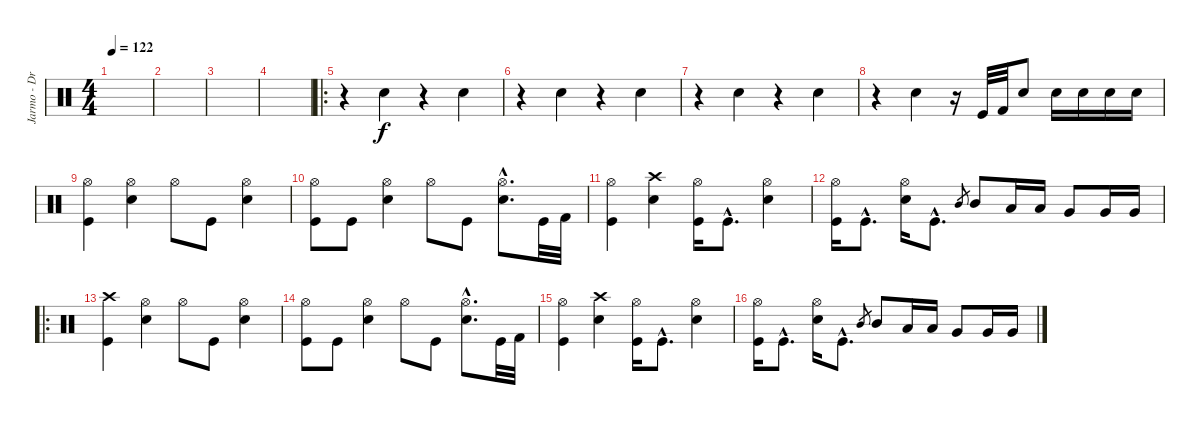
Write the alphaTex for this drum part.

\track ("Jarmo - Drums" "Jarmo - Dr") {instrument percussion}
\staff {score}
\articulation defaults
\ts (4 4)
\tempo 122
\clef neutral
\ks c
|
|
|
|
\ro
r.4 "Electric Snare (hit)".4 r.4 "Electric Snare (hit)".4 |
r.4 "Electric Snare (hit)".4 r.4 "Electric Snare (hit)".4 |
r.4 "Electric Snare (hit)".4 r.4 "Electric Snare (hit)".4 |
r.4 "Electric Snare (hit)".4 r.16 "Kick (hit)".32 "Kick (hit) 2".32 "Electric Snare (hit)".8 "Electric Snare (hit)".16 "Electric Snare (hit)".16 "Electric Snare (hit)".16 "Electric Snare (hit)".16 |
("Hi-Hat (open)" "Kick (hit)").4 ("Hi-Hat (open)" "Electric Snare (hit)").4 "Hi-Hat (open)".8 "Kick (hit)".8 ("Hi-Hat (open)" "Electric Snare (hit)").4 |
("Hi-Hat (open)" "Kick (hit)").8 "Kick (hit)".8 ("Hi-Hat (open)" "Electric Snare (hit)").4 "Hi-Hat (open)".8 "Kick (hit)".8 ("Hi-Hat (open)"{hac} "Electric Snare (hit)"{hac}).8{d} "Kick (hit)".32 "Kick (hit) 2".32 |
("Hi-Hat (open)" "Kick (hit)").4 ("Crash high (hit)" "Electric Snare (hit)").4 ("Hi-Hat (open)" "Kick (hit)").16 "Kick (hit)"{hac}.8{d} ("Hi-Hat (open)" "Electric Snare (hit)").4 |
("Hi-Hat (open)" "Kick (hit)").16 "Kick (hit)"{hac}.8{d} ("Hi-Hat (open)" "Electric Snare (hit)").16 "Kick (hit)"{hac}.8{d} "Mid Tom (hit)".8{gr} "Mid Tom (hit)".8 "Low Tom (hit)".16 "Low Tom (hit)".16 "Very Low Tom (hit)".8 "Very Low Tom (hit)".16 "Very Low Tom (hit)".16 |
\ro
("Crash high (hit)" "Kick (hit)").4 ("Hi-Hat (open)" "Electric Snare (hit)").4 "Hi-Hat (open)".8 "Kick (hit)".8 ("Hi-Hat (open)" "Electric Snare (hit)").4 |
("Hi-Hat (open)" "Kick (hit)").8 "Kick (hit)".8 ("Hi-Hat (open)" "Electric Snare (hit)").4 "Hi-Hat (open)".8 "Kick (hit)".8 ("Hi-Hat (open)"{hac} "Electric Snare (hit)"{hac}).8{d} "Kick (hit)".32 "Kick (hit) 2".32 |
("Hi-Hat (open)" "Kick (hit)").4 ("Crash high (hit)" "Electric Snare (hit)").4 ("Hi-Hat (open)" "Kick (hit)").16 "Kick (hit)"{hac}.8{d} ("Hi-Hat (open)" "Electric Snare (hit)").4 |
("Hi-Hat (open)" "Kick (hit)").16 "Kick (hit)"{hac}.8{d} ("Hi-Hat (open)" "Electric Snare (hit)").16 "Kick (hit)"{hac}.8{d} "Mid Tom (hit)".8{gr} "Mid Tom (hit)".8 "Low Tom (hit)".16 "Low Tom (hit)".16 "Very Low Tom (hit)".8 "Very Low Tom (hit)".16 "Very Low Tom (hit)".16
